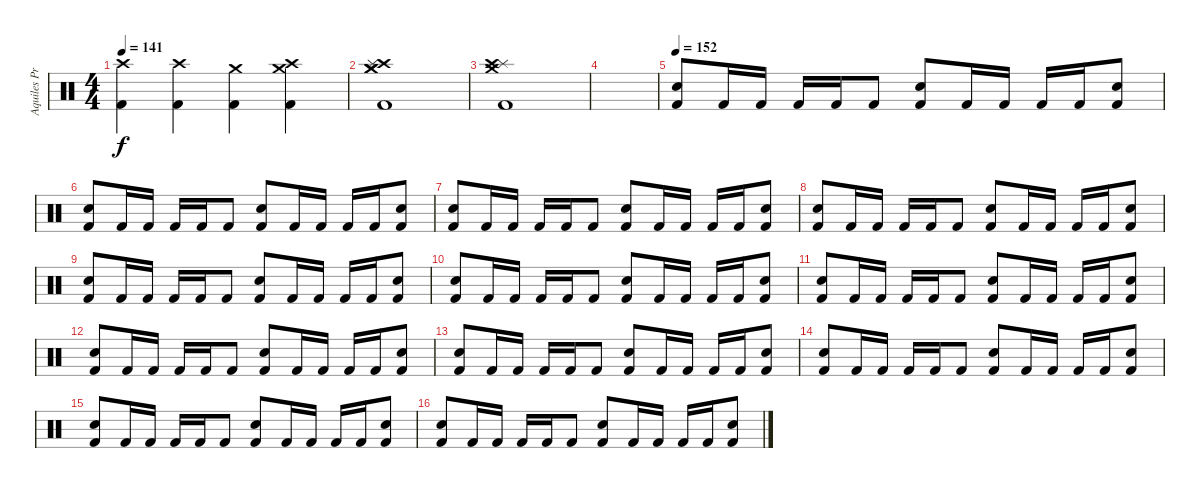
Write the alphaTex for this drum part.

\track ("Aquiles Priester" "Aquiles Pr") {instrument percussion}
\staff {score}
\articulation defaults
\ts (4 4)
\tempo 141
\clef neutral
\ks c
("Crash high (hit)" "Kick (hit) 2").4{dy f} ("Crash high (hit)" "Kick (hit) 2").4 ("Crash medium (hit)" "Kick (hit) 2").4 ("Crash high (hit)" "Crash medium (hit)" "Kick (hit) 2").4 |
("Crash medium (hit)" "Crash high (hit)" "Splash (hit)" "Crash medium (hit)" "Kick (hit) 2").1 |
("Splash (hit)" "Crash high (hit)" "Crash medium (hit)" "Kick (hit) 2").1 |
|
\tempo 152
("Electric Snare (hit)" "Kick (hit) 2").8 "Kick (hit) 2".16 "Kick (hit) 2".16 "Kick (hit) 2".16 "Kick (hit) 2".16 "Kick (hit) 2".8 ("Electric Snare (hit)" "Kick (hit) 2").8 "Kick (hit) 2".16 "Kick (hit) 2".16 "Kick (hit) 2".16 "Kick (hit) 2".16 ("Electric Snare (hit)" "Kick (hit) 2").8 |
("Electric Snare (hit)" "Kick (hit) 2").8 "Kick (hit) 2".16 "Kick (hit) 2".16 "Kick (hit) 2".16 "Kick (hit) 2".16 "Kick (hit) 2".8 ("Electric Snare (hit)" "Kick (hit) 2").8 "Kick (hit) 2".16 "Kick (hit) 2".16 "Kick (hit) 2".16 "Kick (hit) 2".16 ("Electric Snare (hit)" "Kick (hit) 2").8 |
("Electric Snare (hit)" "Kick (hit) 2").8 "Kick (hit) 2".16 "Kick (hit) 2".16 "Kick (hit) 2".16 "Kick (hit) 2".16 "Kick (hit) 2".8 ("Electric Snare (hit)" "Kick (hit) 2").8 "Kick (hit) 2".16 "Kick (hit) 2".16 "Kick (hit) 2".16 "Kick (hit) 2".16 ("Electric Snare (hit)" "Kick (hit) 2").8 |
("Electric Snare (hit)" "Kick (hit) 2").8 "Kick (hit) 2".16 "Kick (hit) 2".16 "Kick (hit) 2".16 "Kick (hit) 2".16 "Kick (hit) 2".8 ("Electric Snare (hit)" "Kick (hit) 2").8 "Kick (hit) 2".16 "Kick (hit) 2".16 "Kick (hit) 2".16 "Kick (hit) 2".16 ("Electric Snare (hit)" "Kick (hit) 2").8 |
("Electric Snare (hit)" "Kick (hit) 2").8 "Kick (hit) 2".16 "Kick (hit) 2".16 "Kick (hit) 2".16 "Kick (hit) 2".16 "Kick (hit) 2".8 ("Electric Snare (hit)" "Kick (hit) 2").8 "Kick (hit) 2".16 "Kick (hit) 2".16 "Kick (hit) 2".16 "Kick (hit) 2".16 ("Electric Snare (hit)" "Kick (hit) 2").8 |
("Electric Snare (hit)" "Kick (hit) 2").8 "Kick (hit) 2".16 "Kick (hit) 2".16 "Kick (hit) 2".16 "Kick (hit) 2".16 "Kick (hit) 2".8 ("Electric Snare (hit)" "Kick (hit) 2").8 "Kick (hit) 2".16 "Kick (hit) 2".16 "Kick (hit) 2".16 "Kick (hit) 2".16 ("Electric Snare (hit)" "Kick (hit) 2").8 |
("Electric Snare (hit)" "Kick (hit) 2").8 "Kick (hit) 2".16 "Kick (hit) 2".16 "Kick (hit) 2".16 "Kick (hit) 2".16 "Kick (hit) 2".8 ("Electric Snare (hit)" "Kick (hit) 2").8 "Kick (hit) 2".16 "Kick (hit) 2".16 "Kick (hit) 2".16 "Kick (hit) 2".16 ("Electric Snare (hit)" "Kick (hit) 2").8 |
("Electric Snare (hit)" "Kick (hit) 2").8 "Kick (hit) 2".16 "Kick (hit) 2".16 "Kick (hit) 2".16 "Kick (hit) 2".16 "Kick (hit) 2".8 ("Electric Snare (hit)" "Kick (hit) 2").8 "Kick (hit) 2".16 "Kick (hit) 2".16 "Kick (hit) 2".16 "Kick (hit) 2".16 ("Electric Snare (hit)" "Kick (hit) 2").8 |
("Electric Snare (hit)" "Kick (hit) 2").8 "Kick (hit) 2".16 "Kick (hit) 2".16 "Kick (hit) 2".16 "Kick (hit) 2".16 "Kick (hit) 2".8 ("Electric Snare (hit)" "Kick (hit) 2").8 "Kick (hit) 2".16 "Kick (hit) 2".16 "Kick (hit) 2".16 "Kick (hit) 2".16 ("Electric Snare (hit)" "Kick (hit) 2").8 |
("Electric Snare (hit)" "Kick (hit) 2").8 "Kick (hit) 2".16 "Kick (hit) 2".16 "Kick (hit) 2".16 "Kick (hit) 2".16 "Kick (hit) 2".8 ("Electric Snare (hit)" "Kick (hit) 2").8 "Kick (hit) 2".16 "Kick (hit) 2".16 "Kick (hit) 2".16 "Kick (hit) 2".16 ("Electric Snare (hit)" "Kick (hit) 2").8 |
("Electric Snare (hit)" "Kick (hit) 2").8 "Kick (hit) 2".16 "Kick (hit) 2".16 "Kick (hit) 2".16 "Kick (hit) 2".16 "Kick (hit) 2".8 ("Electric Snare (hit)" "Kick (hit) 2").8 "Kick (hit) 2".16 "Kick (hit) 2".16 "Kick (hit) 2".16 "Kick (hit) 2".16 ("Electric Snare (hit)" "Kick (hit) 2").8 |
("Electric Snare (hit)" "Kick (hit) 2").8 "Kick (hit) 2".16 "Kick (hit) 2".16 "Kick (hit) 2".16 "Kick (hit) 2".16 "Kick (hit) 2".8 ("Electric Snare (hit)" "Kick (hit) 2").8 "Kick (hit) 2".16 "Kick (hit) 2".16 "Kick (hit) 2".16 "Kick (hit) 2".16 ("Electric Snare (hit)" "Kick (hit) 2").8
